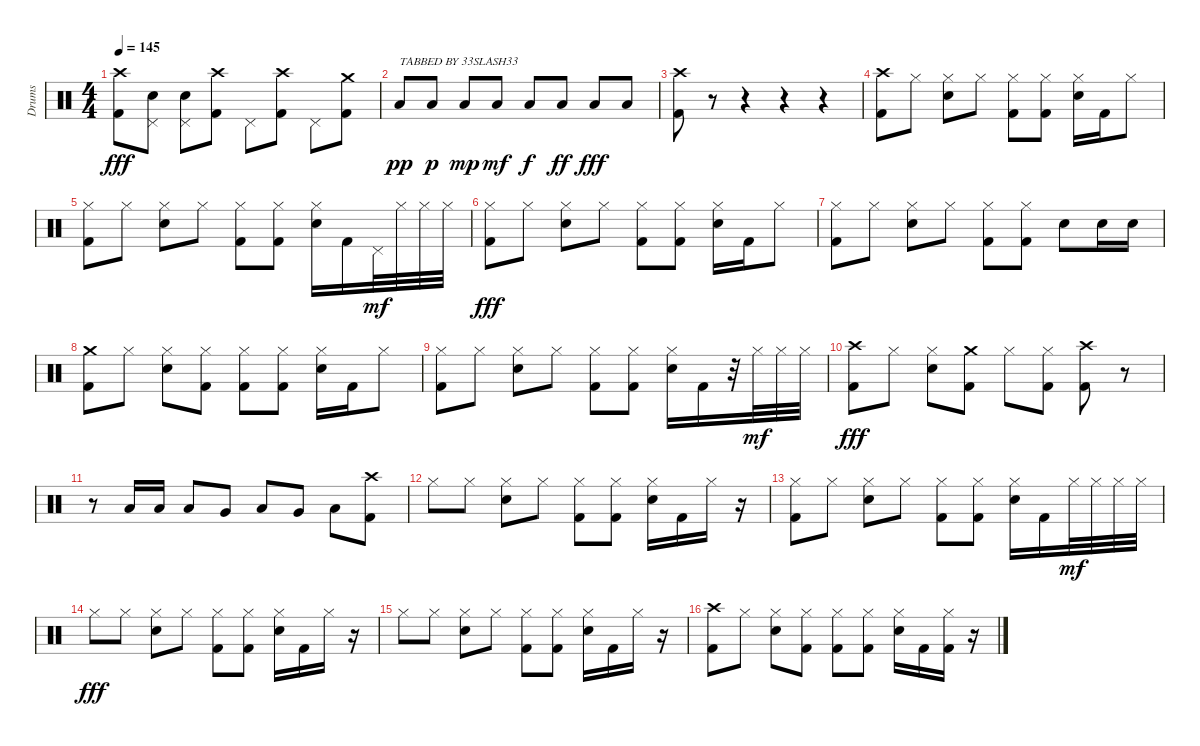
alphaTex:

\track ("Drums" "Drums") {instrument percussion}
\staff {score}
\articulation defaults
\ts (4 4)
\tempo 145
\clef neutral
\ks c
("Crash high (hit)" "Kick (hit) 2").8{dy fff} ("Pedal Hi-Hat (hit)" "Snare (hit) 2").8 ("Pedal Hi-Hat (hit)" "Snare (hit) 2").8 ("Crash high (hit)" "Kick (hit) 2").8 "Pedal Hi-Hat (hit)".8 ("Crash high (hit)" "Kick (hit) 2").8 "Pedal Hi-Hat (hit)".8 ("Crash medium (hit)" "Kick (hit) 2").8 |
"Low Floor Tom (hit)".8{txt "TABBED BY 33SLASH33" dy pp} "Low Floor Tom (hit)".8{dy p} "Low Floor Tom (hit)".8{dy mp} "Low Floor Tom (hit)".8{dy mf} "Low Floor Tom (hit)".8{dy f} "Low Floor Tom (hit)".8{dy ff} "Low Floor Tom (hit)".8{dy fff} "Low Floor Tom (hit)".8 |
("Crash high (hit)" "Kick (hit) 2").8 r.8 r.4 r.4 r.4 |
("Crash high (hit)" "Kick (hit) 2").8 "Hi-Hat (closed)".8 ("Hi-Hat (closed)" "Snare (hit) 2").8 "Hi-Hat (closed)".8 ("Hi-Hat (closed)" "Kick (hit) 2").8 ("Hi-Hat (closed)" "Kick (hit) 2").8 ("Hi-Hat (closed)" "Snare (hit) 2").16 "Kick (hit) 2".16 "Hi-Hat (closed)".8 |
("Hi-Hat (closed)" "Kick (hit) 2").8 "Hi-Hat (closed)".8 ("Hi-Hat (closed)" "Snare (hit) 2").8 "Hi-Hat (closed)".8 ("Hi-Hat (closed)" "Kick (hit) 2").8 ("Hi-Hat (closed)" "Kick (hit) 2").8 ("Hi-Hat (closed)" "Snare (hit) 2").16 "Kick (hit) 2".16 "Pedal Hi-Hat (hit)".32{dy mf} "Hi-Hat (closed)".32 "Hi-Hat (closed)".32 "Hi-Hat (closed)".32 |
("Hi-Hat (closed)" "Kick (hit) 2").8{dy fff} "Hi-Hat (closed)".8 ("Hi-Hat (closed)" "Snare (hit) 2").8 "Hi-Hat (closed)".8 ("Hi-Hat (closed)" "Kick (hit) 2").8 ("Hi-Hat (closed)" "Kick (hit) 2").8 ("Hi-Hat (closed)" "Snare (hit) 2").16 "Kick (hit) 2".16 "Hi-Hat (closed)".8 |
("Hi-Hat (closed)" "Kick (hit) 2").8 "Hi-Hat (closed)".8 ("Hi-Hat (closed)" "Snare (hit) 2").8 "Hi-Hat (closed)".8 ("Hi-Hat (closed)" "Kick (hit) 2").8 ("Hi-Hat (closed)" "Kick (hit) 2").8 "Snare (hit) 2".8 "Snare (hit) 2".16 "Snare (hit) 2".16 |
("Crash medium (hit)" "Kick (hit) 2").8 "Hi-Hat (closed)".8 ("Hi-Hat (closed)" "Snare (hit) 2").8 ("Hi-Hat (closed)" "Kick (hit) 2").8 ("Hi-Hat (closed)" "Kick (hit) 2").8 ("Hi-Hat (closed)" "Kick (hit) 2").8 ("Hi-Hat (closed)" "Snare (hit) 2").16 "Kick (hit) 2".16 "Hi-Hat (closed)".8 |
("Hi-Hat (closed)" "Kick (hit) 2").8 "Hi-Hat (closed)".8 ("Hi-Hat (closed)" "Snare (hit) 2").8 "Hi-Hat (closed)".8 ("Hi-Hat (closed)" "Kick (hit) 2").8 ("Hi-Hat (closed)" "Kick (hit) 2").8 ("Hi-Hat (closed)" "Snare (hit) 2").16 "Kick (hit) 2".16 r.32 "Hi-Hat (closed)".32{dy mf} "Hi-Hat (closed)".32 "Hi-Hat (closed)".32 |
("Crash high (hit)" "Kick (hit) 2").8{dy fff} "Hi-Hat (closed)".8 ("Hi-Hat (closed)" "Snare (hit) 2").8 ("Crash medium (hit)" "Kick (hit) 2").8 "Hi-Hat (closed)".8 ("Hi-Hat (closed)" "Kick (hit) 2").8 ("Crash high (hit)" "Kick (hit) 2").8 r.8 |
r.8 "Low Tom (hit)".16 "Low Tom (hit)".16 "Low Tom (hit)".8 "Very Low Tom (hit)".8 "Low Tom (hit)".8 "Very Low Tom (hit)".8 "Low Floor Tom (hit)".8 ("Crash high (hit)" "Kick (hit) 2").8 |
"Hi-Hat (closed)".8 "Hi-Hat (closed)".8 ("Hi-Hat (closed)" "Snare (hit) 2").8 "Hi-Hat (closed)".8 ("Hi-Hat (closed)" "Kick (hit) 2").8 ("Hi-Hat (closed)" "Kick (hit) 2").8 ("Hi-Hat (closed)" "Snare (hit) 2").16 "Kick (hit) 2".16 "Hi-Hat (closed)".16 r.16 |
("Hi-Hat (closed)" "Kick (hit) 2").8 "Hi-Hat (closed)".8 ("Hi-Hat (closed)" "Snare (hit) 2").8 "Hi-Hat (closed)".8 ("Hi-Hat (closed)" "Kick (hit) 2").8 ("Hi-Hat (closed)" "Kick (hit) 2").8 ("Hi-Hat (closed)" "Snare (hit) 2").16 "Kick (hit) 2".16 "Hi-Hat (closed)".32{dy mf} "Hi-Hat (closed)".32 "Hi-Hat (closed)".32 "Hi-Hat (closed)".32 |
"Hi-Hat (closed)".8{dy fff} "Hi-Hat (closed)".8 ("Hi-Hat (closed)" "Snare (hit) 2").8 "Hi-Hat (closed)".8 ("Hi-Hat (closed)" "Kick (hit) 2").8 ("Hi-Hat (closed)" "Kick (hit) 2").8 ("Hi-Hat (closed)" "Snare (hit) 2").16 "Kick (hit) 2".16 "Hi-Hat (closed)".16 r.16 |
"Hi-Hat (closed)".8 "Hi-Hat (closed)".8 ("Hi-Hat (closed)" "Snare (hit) 2").8 "Hi-Hat (closed)".8 ("Hi-Hat (closed)" "Kick (hit) 2").8 ("Hi-Hat (closed)" "Kick (hit) 2").8 ("Hi-Hat (closed)" "Snare (hit) 2").16 "Kick (hit) 2".16 "Hi-Hat (closed)".16 r.16 |
("Crash high (hit)" "Kick (hit) 2").8 "Hi-Hat (closed)".8 ("Hi-Hat (closed)" "Snare (hit) 2").8 ("Hi-Hat (closed)" "Kick (hit) 2").8 ("Hi-Hat (closed)" "Kick (hit) 2").8 ("Hi-Hat (closed)" "Kick (hit) 2").8 ("Hi-Hat (closed)" "Snare (hit) 2").16 "Kick (hit) 2".16 ("Hi-Hat (closed)" "Kick (hit) 2").16 r.16
